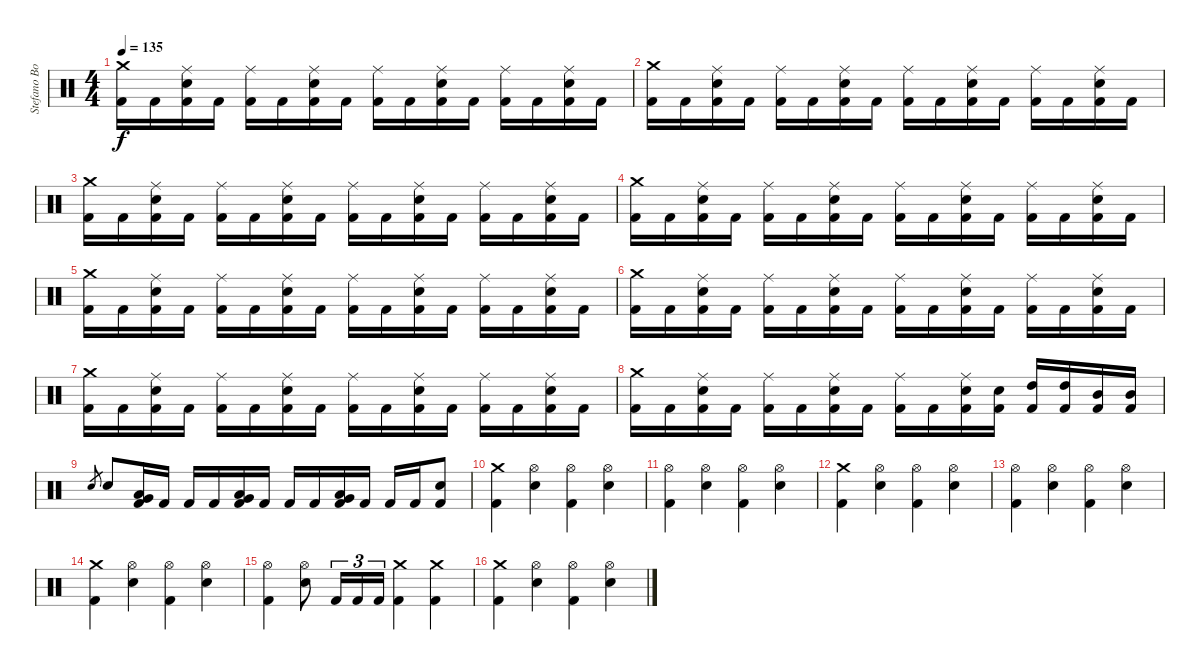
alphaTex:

\track ("Stefano Bonini" "Stefano Bo") {instrument percussion}
\staff {score}
\articulation defaults
\ts (4 4)
\tempo 135
\clef neutral
\ks c
("Crash medium (hit)" "Kick (hit) 2").16{dy f} "Kick (hit) 2".16 ("Ride (middle)" "Electric Snare (hit)" "Kick (hit) 2").16 "Kick (hit) 2".16 ("Ride (middle)" "Kick (hit) 2").16 "Kick (hit) 2".16 ("Ride (middle)" "Electric Snare (hit)" "Kick (hit) 2").16 "Kick (hit) 2".16 ("Ride (middle)" "Kick (hit) 2").16 "Kick (hit) 2".16 ("Ride (middle)" "Electric Snare (hit)" "Kick (hit) 2").16 "Kick (hit) 2".16 ("Ride (middle)" "Kick (hit) 2").16 "Kick (hit) 2".16 ("Ride (middle)" "Electric Snare (hit)" "Kick (hit) 2").16 "Kick (hit) 2".16 |
("Crash medium (hit)" "Kick (hit) 2").16 "Kick (hit) 2".16 ("Ride (middle)" "Electric Snare (hit)" "Kick (hit) 2").16 "Kick (hit) 2".16 ("Ride (middle)" "Kick (hit) 2").16 "Kick (hit) 2".16 ("Ride (middle)" "Electric Snare (hit)" "Kick (hit) 2").16 "Kick (hit) 2".16 ("Ride (middle)" "Kick (hit) 2").16 "Kick (hit) 2".16 ("Ride (middle)" "Electric Snare (hit)" "Kick (hit) 2").16 "Kick (hit) 2".16 ("Ride (middle)" "Kick (hit) 2").16 "Kick (hit) 2".16 ("Ride (middle)" "Electric Snare (hit)" "Kick (hit) 2").16 "Kick (hit) 2".16 |
("Crash medium (hit)" "Kick (hit) 2").16 "Kick (hit) 2".16 ("Ride (middle)" "Electric Snare (hit)" "Kick (hit) 2").16 "Kick (hit) 2".16 ("Ride (middle)" "Kick (hit) 2").16 "Kick (hit) 2".16 ("Ride (middle)" "Electric Snare (hit)" "Kick (hit) 2").16 "Kick (hit) 2".16 ("Ride (middle)" "Kick (hit) 2").16 "Kick (hit) 2".16 ("Ride (middle)" "Electric Snare (hit)" "Kick (hit) 2").16 "Kick (hit) 2".16 ("Ride (middle)" "Kick (hit) 2").16 "Kick (hit) 2".16 ("Ride (middle)" "Electric Snare (hit)" "Kick (hit) 2").16 "Kick (hit) 2".16 |
("Crash medium (hit)" "Kick (hit) 2").16 "Kick (hit) 2".16 ("Ride (middle)" "Electric Snare (hit)" "Kick (hit) 2").16 "Kick (hit) 2".16 ("Ride (middle)" "Kick (hit) 2").16 "Kick (hit) 2".16 ("Ride (middle)" "Electric Snare (hit)" "Kick (hit) 2").16 "Kick (hit) 2".16 ("Ride (middle)" "Kick (hit) 2").16 "Kick (hit) 2".16 ("Ride (middle)" "Electric Snare (hit)" "Kick (hit) 2").16 "Kick (hit) 2".16 ("Ride (middle)" "Kick (hit) 2").16 "Kick (hit) 2".16 ("Ride (middle)" "Electric Snare (hit)" "Kick (hit) 2").16 "Kick (hit) 2".16 |
("Crash medium (hit)" "Kick (hit) 2").16 "Kick (hit) 2".16 ("Ride (middle)" "Electric Snare (hit)" "Kick (hit) 2").16 "Kick (hit) 2".16 ("Ride (middle)" "Kick (hit) 2").16 "Kick (hit) 2".16 ("Ride (middle)" "Electric Snare (hit)" "Kick (hit) 2").16 "Kick (hit) 2".16 ("Ride (middle)" "Kick (hit) 2").16 "Kick (hit) 2".16 ("Ride (middle)" "Electric Snare (hit)" "Kick (hit) 2").16 "Kick (hit) 2".16 ("Ride (middle)" "Kick (hit) 2").16 "Kick (hit) 2".16 ("Ride (middle)" "Electric Snare (hit)" "Kick (hit) 2").16 "Kick (hit) 2".16 |
("Crash medium (hit)" "Kick (hit) 2").16 "Kick (hit) 2".16 ("Ride (middle)" "Electric Snare (hit)" "Kick (hit) 2").16 "Kick (hit) 2".16 ("Ride (middle)" "Kick (hit) 2").16 "Kick (hit) 2".16 ("Ride (middle)" "Electric Snare (hit)" "Kick (hit) 2").16 "Kick (hit) 2".16 ("Ride (middle)" "Kick (hit) 2").16 "Kick (hit) 2".16 ("Ride (middle)" "Electric Snare (hit)" "Kick (hit) 2").16 "Kick (hit) 2".16 ("Ride (middle)" "Kick (hit) 2").16 "Kick (hit) 2".16 ("Ride (middle)" "Electric Snare (hit)" "Kick (hit) 2").16 "Kick (hit) 2".16 |
("Crash medium (hit)" "Kick (hit) 2").16 "Kick (hit) 2".16 ("Ride (middle)" "Electric Snare (hit)" "Kick (hit) 2").16 "Kick (hit) 2".16 ("Ride (middle)" "Kick (hit) 2").16 "Kick (hit) 2".16 ("Ride (middle)" "Electric Snare (hit)" "Kick (hit) 2").16 "Kick (hit) 2".16 ("Ride (middle)" "Kick (hit) 2").16 "Kick (hit) 2".16 ("Ride (middle)" "Electric Snare (hit)" "Kick (hit) 2").16 "Kick (hit) 2".16 ("Ride (middle)" "Kick (hit) 2").16 "Kick (hit) 2".16 ("Ride (middle)" "Electric Snare (hit)" "Kick (hit) 2").16 "Kick (hit) 2".16 |
("Crash medium (hit)" "Kick (hit) 2").16 "Kick (hit) 2".16 ("Ride (middle)" "Electric Snare (hit)" "Kick (hit) 2").16 "Kick (hit) 2".16 ("Ride (middle)" "Kick (hit) 2").16 "Kick (hit) 2".16 ("Ride (middle)" "Electric Snare (hit)" "Kick (hit) 2").16 "Kick (hit) 2".16 ("Ride (middle)" "Kick (hit) 2").16 "Kick (hit) 2".16 ("Ride (middle)" "Electric Snare (hit)" "Kick (hit) 2").16 ("Electric Snare (hit)" "Kick (hit) 2").16 ("High Tom (hit)" "Kick (hit) 2").16 ("High Tom (hit)" "Kick (hit) 2").16 ("Mid Tom (hit)" "Kick (hit) 2").16 ("Mid Tom (hit)" "Kick (hit) 2").16 |
"Electric Snare (hit)".8{gr} "Electric Snare (hit)".8 ("Low Floor Tom (hit)" "Very Low Tom (hit)" "Kick (hit) 2").16 "Kick (hit) 2".16 "Kick (hit) 2".16 "Kick (hit) 2".16 ("Low Floor Tom (hit)" "Very Low Tom (hit)" "Kick (hit) 2").16 "Kick (hit) 2".16 "Kick (hit) 2".16 "Kick (hit) 2".16 ("Very Low Tom (hit)" "Low Floor Tom (hit)" "Kick (hit) 2").16 "Kick (hit) 2".16 "Kick (hit) 2".16 "Kick (hit) 2".16 ("Electric Snare (hit)" "Kick (hit) 2").8 |
("Crash medium (hit)" "Kick (hit) 2").4 ("Hi-Hat (open)" "Electric Snare (hit)").4 ("Hi-Hat (open)" "Kick (hit) 2").4 ("Hi-Hat (open)" "Electric Snare (hit)").4 |
("Hi-Hat (open)" "Kick (hit) 2").4 ("Hi-Hat (open)" "Electric Snare (hit)").4 ("Hi-Hat (open)" "Kick (hit) 2").4 ("Hi-Hat (open)" "Electric Snare (hit)").4 |
("Crash medium (hit)" "Kick (hit) 2").4 ("Hi-Hat (open)" "Electric Snare (hit)").4 ("Hi-Hat (open)" "Kick (hit) 2").4 ("Hi-Hat (open)" "Electric Snare (hit)").4 |
("Hi-Hat (open)" "Kick (hit) 2").4 ("Hi-Hat (open)" "Electric Snare (hit)").4 ("Hi-Hat (open)" "Kick (hit) 2").4 ("Hi-Hat (open)" "Electric Snare (hit)").4 |
("Crash medium (hit)" "Kick (hit) 2").4 ("Hi-Hat (open)" "Electric Snare (hit)").4 ("Hi-Hat (open)" "Kick (hit) 2").4 ("Hi-Hat (open)" "Electric Snare (hit)").4 |
("Hi-Hat (open)" "Kick (hit) 2").4 ("Hi-Hat (open)" "Electric Snare (hit)").8 "Kick (hit) 2".16{tu (3 2)} "Kick (hit) 2".16{tu (3 2)} "Kick (hit) 2".16{tu (3 2)} ("Crash medium (hit)" "Kick (hit) 2").4 ("Crash medium (hit)" "Kick (hit) 2").4 |
("Crash medium (hit)" "Kick (hit) 2").4 ("Hi-Hat (open)" "Electric Snare (hit)").4 ("Hi-Hat (open)" "Kick (hit) 2").4 ("Hi-Hat (open)" "Electric Snare (hit)").4
